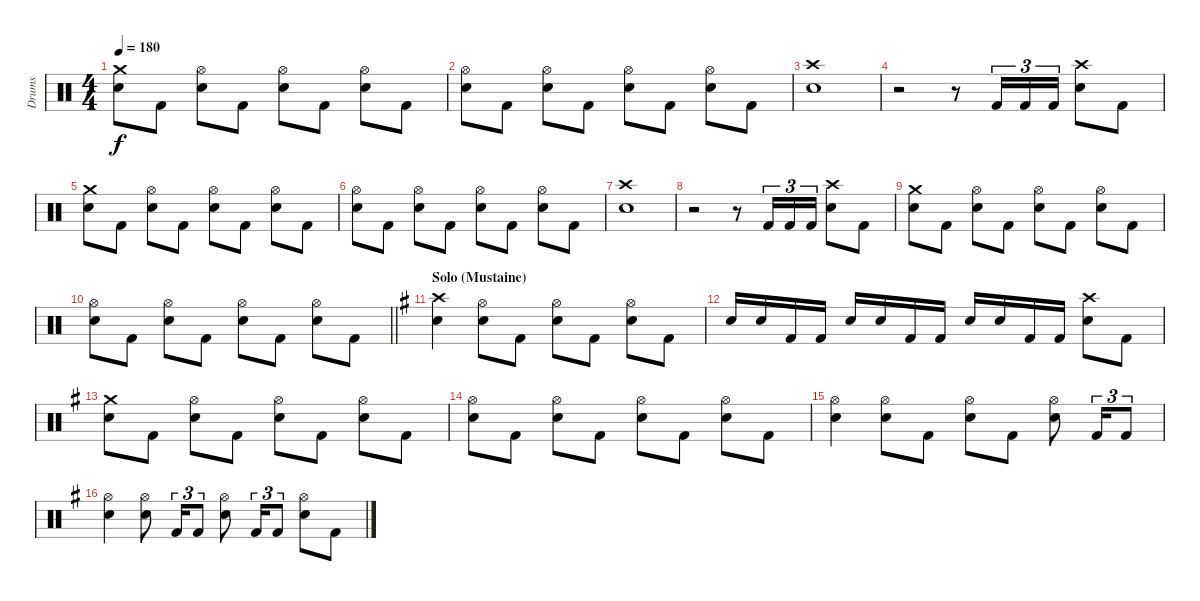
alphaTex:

\track ("Drums" "Drums") {instrument percussion}
\staff {score}
\articulation defaults
\ts (4 4)
\tempo 180
\clef neutral
\ks c
("Crash medium (hit)" "Snare (hit) 2").8{dy f} "Kick (hit) 2".8 ("Hi-Hat (open)" "Snare (hit) 2").8 "Kick (hit) 2".8 ("Hi-Hat (open)" "Snare (hit) 2").8 "Kick (hit) 2".8 ("Hi-Hat (open)" "Snare (hit) 2").8 "Kick (hit) 2".8 |
("Hi-Hat (open)" "Snare (hit) 2").8 "Kick (hit) 2".8 ("Hi-Hat (open)" "Snare (hit) 2").8 "Kick (hit) 2".8 ("Hi-Hat (open)" "Snare (hit) 2").8 "Kick (hit) 2".8 ("Hi-Hat (open)" "Snare (hit) 2").8 "Kick (hit) 2".8 |
("Crash high (hit)" "Snare (hit) 2").1 |
r.2 r.8 "Kick (hit) 2".16{tu (3 2)} "Kick (hit) 2".16{tu (3 2)} "Kick (hit) 2".16{tu (3 2)} ("Crash high (hit)" "Snare (hit) 2").8 "Kick (hit) 2".8 |
("Crash medium (hit)" "Snare (hit) 2").8 "Kick (hit) 2".8 ("Hi-Hat (open)" "Snare (hit) 2").8 "Kick (hit) 2".8 ("Hi-Hat (open)" "Snare (hit) 2").8 "Kick (hit) 2".8 ("Hi-Hat (open)" "Snare (hit) 2").8 "Kick (hit) 2".8 |
("Hi-Hat (open)" "Snare (hit) 2").8 "Kick (hit) 2".8 ("Hi-Hat (open)" "Snare (hit) 2").8 "Kick (hit) 2".8 ("Hi-Hat (open)" "Snare (hit) 2").8 "Kick (hit) 2".8 ("Hi-Hat (open)" "Snare (hit) 2").8 "Kick (hit) 2".8 |
("Crash high (hit)" "Snare (hit) 2").1 |
r.2 r.8 "Kick (hit) 2".16{tu (3 2)} "Kick (hit) 2".16{tu (3 2)} "Kick (hit) 2".16{tu (3 2)} ("Crash high (hit)" "Snare (hit) 2").8 "Kick (hit) 2".8 |
("Crash medium (hit)" "Snare (hit) 2").8 "Kick (hit) 2".8 ("Hi-Hat (open)" "Snare (hit) 2").8 "Kick (hit) 2".8 ("Hi-Hat (open)" "Snare (hit) 2").8 "Kick (hit) 2".8 ("Hi-Hat (open)" "Snare (hit) 2").8 "Kick (hit) 2".8 |
\barLineRight lightlight
("Hi-Hat (open)" "Snare (hit) 2").8 "Kick (hit) 2".8 ("Hi-Hat (open)" "Snare (hit) 2").8 "Kick (hit) 2".8 ("Hi-Hat (open)" "Snare (hit) 2").8 "Kick (hit) 2".8 ("Hi-Hat (open)" "Snare (hit) 2").8 "Kick (hit) 2".8 |
\section ("" "Solo (Mustaine)")
\ks g
("Crash high (hit)" "Snare (hit) 2").4 ("Hi-Hat (open)" "Snare (hit) 2").8 "Kick (hit) 2".8 ("Hi-Hat (open)" "Snare (hit) 2").8 "Kick (hit) 2".8 ("Hi-Hat (open)" "Snare (hit) 2").8 "Kick (hit) 2".8 |
"Snare (hit) 2".16 "Snare (hit) 2".16 "Kick (hit) 2".16 "Kick (hit) 2".16 "Snare (hit) 2".16 "Snare (hit) 2".16 "Kick (hit) 2".16 "Kick (hit) 2".16 "Snare (hit) 2".16 "Snare (hit) 2".16 "Kick (hit) 2".16 "Kick (hit) 2".16 ("Crash high (hit)" "Snare (hit) 2").8 "Kick (hit) 2".8 |
("Crash medium (hit)" "Snare (hit) 2").8 "Kick (hit) 2".8 ("Hi-Hat (open)" "Snare (hit) 2").8 "Kick (hit) 2".8 ("Hi-Hat (open)" "Snare (hit) 2").8 "Kick (hit) 2".8 ("Hi-Hat (open)" "Snare (hit) 2").8 "Kick (hit) 2".8 |
("Hi-Hat (open)" "Snare (hit) 2").8 "Kick (hit) 2".8 ("Hi-Hat (open)" "Snare (hit) 2").8 "Kick (hit) 2".8 ("Hi-Hat (open)" "Snare (hit) 2").8 "Kick (hit) 2".8 ("Hi-Hat (open)" "Snare (hit) 2").8 "Kick (hit) 2".8 |
("Hi-Hat (open)" "Snare (hit) 2").4 ("Hi-Hat (open)" "Snare (hit) 2").8 "Kick (hit) 2".8 ("Hi-Hat (open)" "Snare (hit) 2").8 "Kick (hit) 2".8 ("Hi-Hat (open)" "Snare (hit) 2").8 "Kick (hit) 2".16{tu (3 2)} "Kick (hit) 2".8{tu (3 2)} |
("Hi-Hat (open)" "Snare (hit) 2").4 ("Hi-Hat (open)" "Snare (hit) 2").8 "Kick (hit) 2".16{tu (3 2)} "Kick (hit) 2".8{tu (3 2)} ("Hi-Hat (open)" "Snare (hit) 2").8 "Kick (hit) 2".16{tu (3 2)} "Kick (hit) 2".8{tu (3 2)} ("Hi-Hat (open)" "Snare (hit) 2").8 "Kick (hit) 2".8
